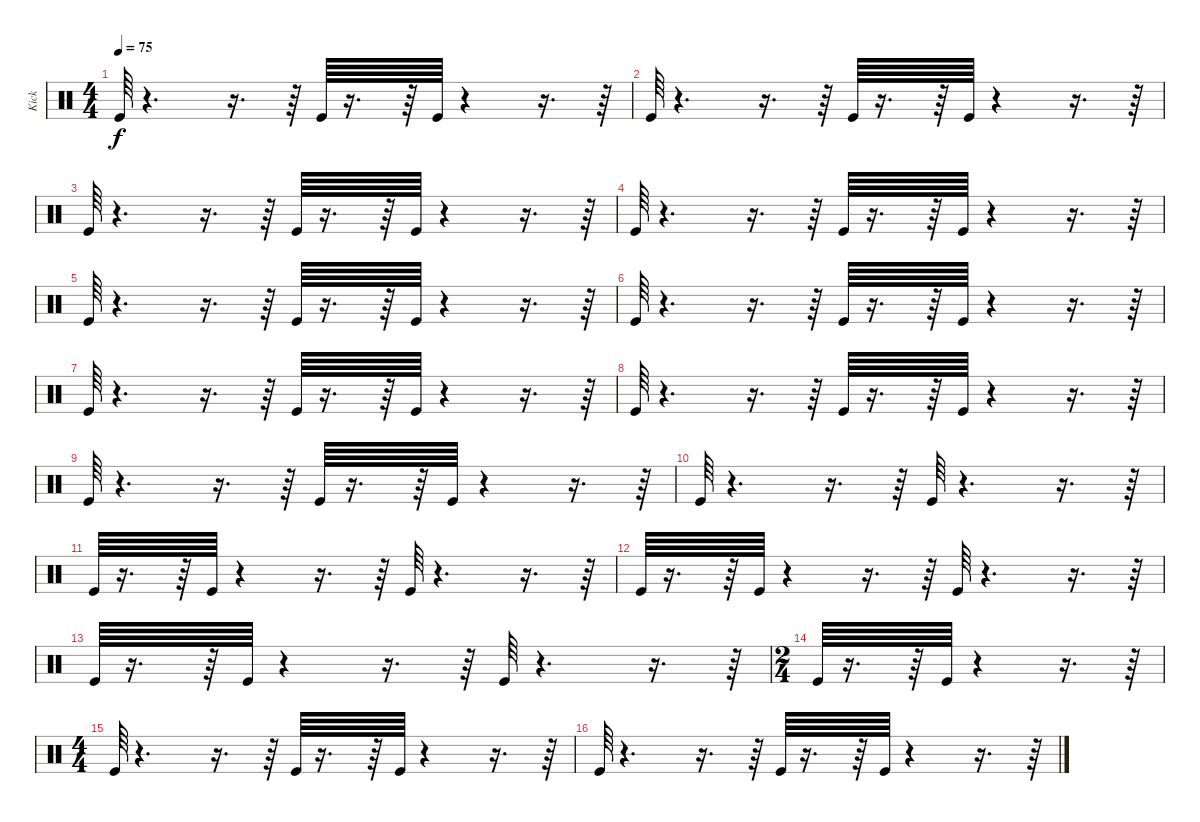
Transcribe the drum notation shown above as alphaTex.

\track ("Kick" "Kick") {instrument percussion}
\staff {score}
\articulation defaults
\ts (4 4)
\tempo 75
\clef neutral
\ks c "Kick (hit)".64{dy f}
r.4{d} r.16{d} r.64 "Kick (hit)".64 r.16{d} r.64 "Kick (hit)".64 r.4 r.16{d} r.64 |
"Kick (hit)".64 r.4{d} r.16{d} r.64 "Kick (hit)".64 r.16{d} r.64 "Kick (hit)".64 r.4 r.16{d} r.64 |
"Kick (hit)".64 r.4{d} r.16{d} r.64 "Kick (hit)".64 r.16{d} r.64 "Kick (hit)".64 r.4 r.16{d} r.64 |
"Kick (hit)".64 r.4{d} r.16{d} r.64 "Kick (hit)".64 r.16{d} r.64 "Kick (hit)".64 r.4 r.16{d} r.64 |
"Kick (hit)".64 r.4{d} r.16{d} r.64 "Kick (hit)".64 r.16{d} r.64 "Kick (hit)".64 r.4 r.16{d} r.64 |
"Kick (hit)".64 r.4{d} r.16{d} r.64 "Kick (hit)".64 r.16{d} r.64 "Kick (hit)".64 r.4 r.16{d} r.64 |
"Kick (hit)".64 r.4{d} r.16{d} r.64 "Kick (hit)".64 r.16{d} r.64 "Kick (hit)".64 r.4 r.16{d} r.64 |
"Kick (hit)".64 r.4{d} r.16{d} r.64 "Kick (hit)".64 r.16{d} r.64 "Kick (hit)".64 r.4 r.16{d} r.64 |
"Kick (hit)".64 r.4{d} r.16{d} r.64 "Kick (hit)".64 r.16{d} r.64 "Kick (hit)".64 r.4 r.16{d} r.64 |
"Kick (hit)".64 r.4{d} r.16{d} r.64 "Kick (hit)".64 r.4{d} r.16{d} r.64 |
"Kick (hit)".64 r.16{d} r.64 "Kick (hit)".64 r.4 r.16{d} r.64 "Kick (hit)".64 r.4{d} r.16{d} r.64 |
"Kick (hit)".64 r.16{d} r.64 "Kick (hit)".64 r.4 r.16{d} r.64 "Kick (hit)".64 r.4{d} r.16{d} r.64 |
"Kick (hit)".64 r.16{d} r.64 "Kick (hit)".64 r.4 r.16{d} r.64 "Kick (hit)".64 r.4{d} r.16{d} r.64 |
\ts (2 4)
"Kick (hit)".64 r.16{d} r.64 "Kick (hit)".64 r.4 r.16{d} r.64 |
\ts (4 4)
"Kick (hit)".64 r.4{d} r.16{d} r.64 "Kick (hit)".64 r.16{d} r.64 "Kick (hit)".64 r.4 r.16{d} r.64 |
"Kick (hit)".64 r.4{d} r.16{d} r.64 "Kick (hit)".64 r.16{d} r.64 "Kick (hit)".64 r.4 r.16{d} r.64
